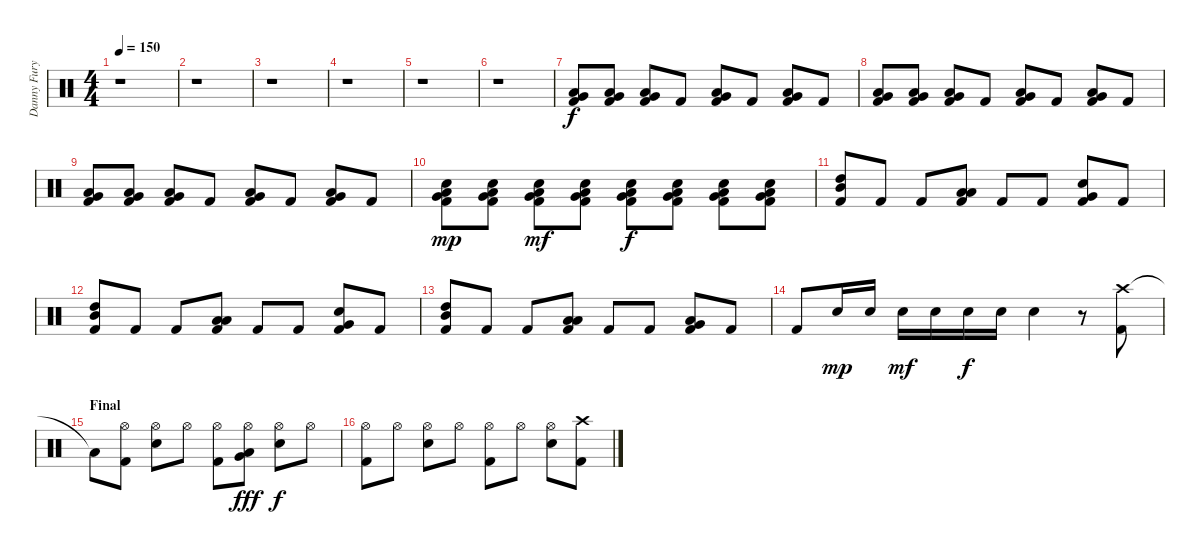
\track ("Danny Fury" "Danny Fury") {instrument percussion}
\staff {score}
\articulation defaults
\ts (4 4)
\tempo 150
\clef neutral
\ks c
r.1{dy f} |
r.1 |
r.1 |
r.1 |
r.1 |
r.1 |
("Low Floor Tom (hit)" "Very Low Tom (hit)" "Kick (hit) 2").8 ("Low Floor Tom (hit)" "Very Low Tom (hit)" "Kick (hit) 2").8 ("Low Floor Tom (hit)" "Very Low Tom (hit)" "Kick (hit) 2").8 "Kick (hit) 2".8 ("Low Floor Tom (hit)" "Very Low Tom (hit)" "Kick (hit) 2").8 "Kick (hit) 2".8 ("Low Floor Tom (hit)" "Very Low Tom (hit)" "Kick (hit) 2").8 "Kick (hit) 2".8 |
("Low Floor Tom (hit)" "Very Low Tom (hit)" "Kick (hit) 2").8 ("Low Floor Tom (hit)" "Very Low Tom (hit)" "Kick (hit) 2").8 ("Low Floor Tom (hit)" "Very Low Tom (hit)" "Kick (hit) 2").8 "Kick (hit) 2".8 ("Low Floor Tom (hit)" "Very Low Tom (hit)" "Kick (hit) 2").8 "Kick (hit) 2".8 ("Low Floor Tom (hit)" "Very Low Tom (hit)" "Kick (hit) 2").8 "Kick (hit) 2".8 |
("Low Floor Tom (hit)" "Very Low Tom (hit)" "Kick (hit) 2").8 ("Low Floor Tom (hit)" "Very Low Tom (hit)" "Kick (hit) 2").8 ("Low Floor Tom (hit)" "Very Low Tom (hit)" "Kick (hit) 2").8 "Kick (hit) 2".8 ("Low Floor Tom (hit)" "Very Low Tom (hit)" "Kick (hit) 2").8 "Kick (hit) 2".8 ("Low Floor Tom (hit)" "Very Low Tom (hit)" "Kick (hit) 2").8 "Kick (hit) 2".8 |
("Low Floor Tom (hit)" "Very Low Tom (hit)" "Electric Snare (hit)" "Kick (hit) 2").8{dy mp} ("Low Floor Tom (hit)" "Very Low Tom (hit)" "Electric Snare (hit)" "Kick (hit) 2").8 ("Low Floor Tom (hit)" "Very Low Tom (hit)" "Electric Snare (hit)" "Kick (hit) 2").8{dy mf} ("Low Floor Tom (hit)" "Very Low Tom (hit)" "Electric Snare (hit)" "Kick (hit) 2").8 ("Low Floor Tom (hit)" "Very Low Tom (hit)" "Electric Snare (hit)" "Kick (hit) 2").8{dy f} ("Low Floor Tom (hit)" "Very Low Tom (hit)" "Electric Snare (hit)" "Kick (hit) 2").8 ("Low Floor Tom (hit)" "Very Low Tom (hit)" "Electric Snare (hit)" "Kick (hit) 2").8 ("Low Floor Tom (hit)" "Very Low Tom (hit)" "Electric Snare (hit)" "Kick (hit) 2").8 |
("Mid Tom (hit)" "High Tom (hit)" "Kick (hit) 2").8 "Kick (hit) 2".8 "Kick (hit) 2".8 ("Low Floor Tom (hit)" "Low Tom (hit)" "Kick (hit) 2").8 "Kick (hit) 2".8 "Kick (hit) 2".8 ("Very Low Tom (hit)" "Electric Snare (hit)" "Kick (hit) 2").8 "Kick (hit) 2".8 |
("Mid Tom (hit)" "High Tom (hit)" "Kick (hit) 2").8 "Kick (hit) 2".8 "Kick (hit) 2".8 ("Low Floor Tom (hit)" "Low Tom (hit)" "Kick (hit) 2").8 "Kick (hit) 2".8 "Kick (hit) 2".8 ("Very Low Tom (hit)" "Electric Snare (hit)" "Kick (hit) 2").8 "Kick (hit) 2".8 |
("Mid Tom (hit)" "High Tom (hit)" "Kick (hit) 2").8 "Kick (hit) 2".8 "Kick (hit) 2".8 ("Low Floor Tom (hit)" "Low Tom (hit)" "Kick (hit) 2").8 "Kick (hit) 2".8 "Kick (hit) 2".8 ("Very Low Tom (hit)" "Low Floor Tom (hit)" "Kick (hit) 2").8 "Kick (hit) 2".8 |
"Kick (hit) 2".8 "Electric Snare (hit)".16{dy mp} "Electric Snare (hit)".16 "Electric Snare (hit)".16{dy mf} "Electric Snare (hit)".16 "Electric Snare (hit)".16{dy f} "Electric Snare (hit)".16 "Electric Snare (hit)".4 r.8 ("Crash high (hit)" "Kick (hit) 2").8 |
\section ("" "Final")
"Low Floor Tom (hit)"{t}.8 ("Hi-Hat (open)" "Kick (hit) 2").8 ("Hi-Hat (open)" "Electric Snare (hit)").8 "Hi-Hat (open)".8 ("Hi-Hat (open)" "Kick (hit) 2").8 ("Hi-Hat (open)" "Low Floor Tom (hit)" "Very Low Tom (hit)").8{dy fff} ("Hi-Hat (open)" "Electric Snare (hit)").8{dy f} "Hi-Hat (open)".8 |
("Hi-Hat (open)" "Kick (hit) 2").8 "Hi-Hat (open)".8 ("Hi-Hat (open)" "Electric Snare (hit)").8 "Hi-Hat (open)".8 ("Hi-Hat (open)" "Kick (hit) 2").8 "Hi-Hat (open)".8 ("Hi-Hat (open)" "Electric Snare (hit)").8 ("Crash high (hit)" "Kick (hit) 2").8
